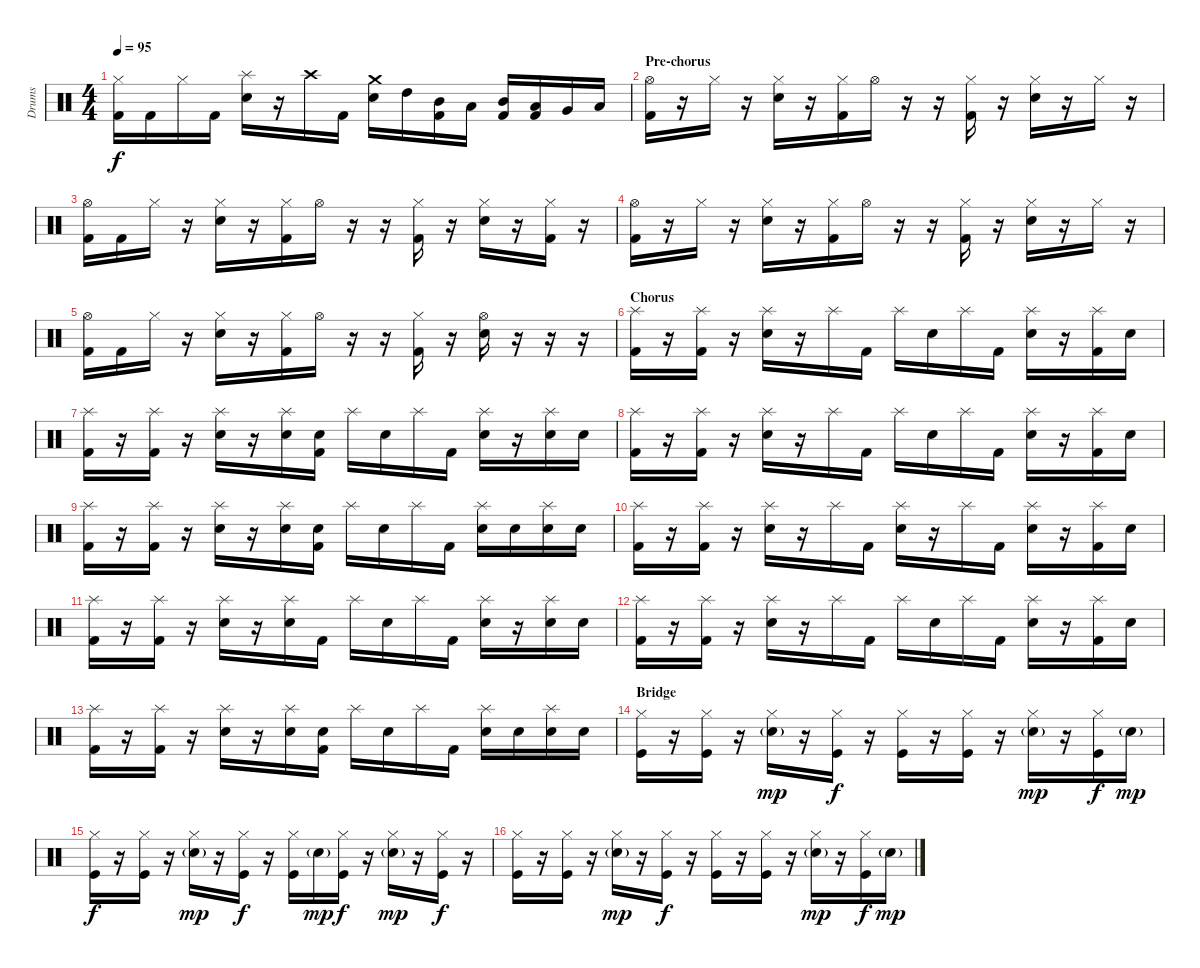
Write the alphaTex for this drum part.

\track ("Drums" "Drums") {instrument percussion}
\staff {score}
\articulation defaults
\ts (4 4)
\tempo 95
\clef neutral
\ks c
("Hi-Hat (closed)" "Kick (hit) 2").16{dy f} "Kick (hit) 2".16 "Hi-Hat (closed)".16 "Kick (hit) 2".16 ("Electric Snare (hit)" "Splash (hit)").16 r.16 "Crash high (hit)".16 "Kick (hit) 2".16 ("Crash medium (hit)" "Electric Snare (hit)").16 "High Tom (hit)".16 ("Mid Tom (hit)" "Kick (hit) 2").16 "Low Tom (hit)".16 ("Mid Tom (hit)" "Kick (hit) 2").16 ("Low Tom (hit)" "Kick (hit) 2").16 "Very Low Tom (hit)".16 "Low Floor Tom (hit)".16 |
\section ("" "Pre-chorus")
("Hi-Hat (open)" "Kick (hit) 2").16 r.16 "Hi-Hat (closed)".16 r.16 ("Hi-Hat (closed)" "Electric Snare (hit)").16 r.16 ("Hi-Hat (closed)" "Kick (hit) 2").16 "Hi-Hat (open)".16 r.16 r.16 ("Hi-Hat (closed)" "Kick (hit) 2").16 r.16 ("Hi-Hat (closed)" "Electric Snare (hit)").16 r.16 "Hi-Hat (closed)".16 r.16 |
("Hi-Hat (open)" "Kick (hit) 2").16 "Kick (hit) 2".16 "Hi-Hat (closed)".16 r.16 ("Hi-Hat (closed)" "Electric Snare (hit)").16 r.16 ("Hi-Hat (closed)" "Kick (hit) 2").16 "Hi-Hat (open)".16 r.16 r.16 ("Hi-Hat (closed)" "Kick (hit) 2").16 r.16 ("Hi-Hat (closed)" "Electric Snare (hit)").16 r.16 ("Hi-Hat (closed)" "Kick (hit) 2").16 r.16 |
("Hi-Hat (open)" "Kick (hit) 2").16 r.16 "Hi-Hat (closed)".16 r.16 ("Hi-Hat (closed)" "Electric Snare (hit)").16 r.16 ("Hi-Hat (closed)" "Kick (hit) 2").16 "Hi-Hat (open)".16 r.16 r.16 ("Hi-Hat (closed)" "Kick (hit) 2").16 r.16 ("Hi-Hat (closed)" "Electric Snare (hit)").16 r.16 "Hi-Hat (closed)".16 r.16 |
("Hi-Hat (open)" "Kick (hit) 2").16 "Kick (hit) 2".16 "Hi-Hat (closed)".16 r.16 ("Hi-Hat (closed)" "Electric Snare (hit)").16 r.16 ("Hi-Hat (closed)" "Kick (hit) 2").16 "Hi-Hat (open)".16 r.16 r.16 ("Hi-Hat (closed)" "Kick (hit) 2").16 r.16 ("Hi-Hat (open)" "Electric Snare (hit)").16 r.16 r.16 r.16 |
\section ("" "Chorus")
("Splash (hit)" "Kick (hit) 2").16 r.16 ("Splash (hit)" "Kick (hit) 2").16 r.16 ("Splash (hit)" "Electric Snare (hit)").16 r.16 "Splash (hit)".16 "Kick (hit) 2".16 "Splash (hit)".16 "Electric Snare (hit)".16 "Splash (hit)".16 "Kick (hit) 2".16 ("Splash (hit)" "Electric Snare (hit)").16 r.16 ("Splash (hit)" "Kick (hit) 2").16 "Electric Snare (hit)".16 |
("Splash (hit)" "Kick (hit) 2").16 r.16 ("Splash (hit)" "Kick (hit) 2").16 r.16 ("Splash (hit)" "Electric Snare (hit)").16 r.16 ("Splash (hit)" "Electric Snare (hit)").16 ("Kick (hit) 2" "Electric Snare (hit)").16 "Splash (hit)".16 "Electric Snare (hit)".16 "Splash (hit)".16 "Kick (hit) 2".16 ("Splash (hit)" "Electric Snare (hit)").16 r.16 ("Splash (hit)" "Electric Snare (hit)").16 "Electric Snare (hit)".16 |
("Splash (hit)" "Kick (hit) 2").16 r.16 ("Splash (hit)" "Kick (hit) 2").16 r.16 ("Splash (hit)" "Electric Snare (hit)").16 r.16 "Splash (hit)".16 "Kick (hit) 2".16 "Splash (hit)".16 "Electric Snare (hit)".16 "Splash (hit)".16 "Kick (hit) 2".16 ("Splash (hit)" "Electric Snare (hit)").16 r.16 ("Splash (hit)" "Kick (hit) 2").16 "Electric Snare (hit)".16 |
("Splash (hit)" "Kick (hit) 2").16 r.16 ("Splash (hit)" "Kick (hit) 2").16 r.16 ("Splash (hit)" "Electric Snare (hit)").16 r.16 ("Splash (hit)" "Electric Snare (hit)").16 ("Kick (hit) 2" "Electric Snare (hit)").16 "Splash (hit)".16 "Electric Snare (hit)".16 "Splash (hit)".16 "Kick (hit) 2".16 ("Splash (hit)" "Electric Snare (hit)").16 "Electric Snare (hit)".16 ("Splash (hit)" "Electric Snare (hit)").16 "Electric Snare (hit)".16 |
("Splash (hit)" "Kick (hit) 2").16 r.16 ("Splash (hit)" "Kick (hit) 2").16 r.16 ("Splash (hit)" "Electric Snare (hit)").16 r.16 "Splash (hit)".16 "Kick (hit) 2".16 ("Splash (hit)" "Electric Snare (hit)").16 r.16 "Splash (hit)".16 "Kick (hit) 2".16 ("Splash (hit)" "Electric Snare (hit)").16 r.16 ("Splash (hit)" "Kick (hit) 2").16 "Electric Snare (hit)".16 |
("Splash (hit)" "Kick (hit) 2").16 r.16 ("Splash (hit)" "Kick (hit) 2").16 r.16 ("Splash (hit)" "Electric Snare (hit)").16 r.16 ("Splash (hit)" "Electric Snare (hit)").16 "Kick (hit) 2".16 "Splash (hit)".16 "Electric Snare (hit)".16 "Splash (hit)".16 "Kick (hit) 2".16 ("Splash (hit)" "Electric Snare (hit)").16 r.16 ("Splash (hit)" "Electric Snare (hit)").16 "Electric Snare (hit)".16 |
("Splash (hit)" "Kick (hit) 2").16 r.16 ("Splash (hit)" "Kick (hit) 2").16 r.16 ("Splash (hit)" "Electric Snare (hit)").16 r.16 "Splash (hit)".16 "Kick (hit) 2".16 "Splash (hit)".16 "Electric Snare (hit)".16 "Splash (hit)".16 "Kick (hit) 2".16 ("Splash (hit)" "Electric Snare (hit)").16 r.16 ("Splash (hit)" "Kick (hit) 2").16 "Electric Snare (hit)".16 |
("Splash (hit)" "Kick (hit) 2").16 r.16 ("Splash (hit)" "Kick (hit) 2").16 r.16 ("Splash (hit)" "Electric Snare (hit)").16 r.16 ("Splash (hit)" "Electric Snare (hit)").16 ("Kick (hit) 2" "Electric Snare (hit)").16 "Splash (hit)".16 "Electric Snare (hit)".16 "Splash (hit)".16 "Kick (hit) 2".16 ("Splash (hit)" "Electric Snare (hit)").16 "Electric Snare (hit)".16 ("Splash (hit)" "Electric Snare (hit)").16 "Electric Snare (hit)".16 |
\section ("" "Bridge")
("Hi-Hat (closed)" "Kick (hit)").16 r.16 ("Hi-Hat (closed)" "Kick (hit)").16 r.16 ("Hi-Hat (closed)" "Electric Snare (hit)"{g}).16{dy mp} r.16 ("Hi-Hat (closed)" "Kick (hit)").16{dy f} r.16 ("Hi-Hat (closed)" "Kick (hit)").16 r.16 ("Hi-Hat (closed)" "Kick (hit)").16 r.16 ("Hi-Hat (closed)" "Electric Snare (hit)"{g}).16{dy mp} r.16 ("Hi-Hat (closed)" "Kick (hit)").16{dy f} "Electric Snare (hit)"{g}.16{dy mp} |
("Hi-Hat (closed)" "Kick (hit)").16{dy f} r.16 ("Hi-Hat (closed)" "Kick (hit)").16 r.16 ("Hi-Hat (closed)" "Electric Snare (hit)"{g}).16{dy mp} r.16 ("Hi-Hat (closed)" "Kick (hit)").16{dy f} r.16 ("Hi-Hat (closed)" "Kick (hit)").16 "Electric Snare (hit)"{g}.16{dy mp} ("Hi-Hat (closed)" "Kick (hit)").16{dy f} r.16 ("Hi-Hat (closed)" "Electric Snare (hit)"{g}).16{dy mp} r.16 ("Hi-Hat (closed)" "Kick (hit)").16{dy f} r.16 |
("Hi-Hat (closed)" "Kick (hit)").16 r.16 ("Hi-Hat (closed)" "Kick (hit)").16 r.16 ("Hi-Hat (closed)" "Electric Snare (hit)"{g}).16{dy mp} r.16 ("Hi-Hat (closed)" "Kick (hit)").16{dy f} r.16 ("Hi-Hat (closed)" "Kick (hit)").16 r.16 ("Hi-Hat (closed)" "Kick (hit)").16 r.16 ("Hi-Hat (closed)" "Electric Snare (hit)"{g}).16{dy mp} r.16 ("Hi-Hat (closed)" "Kick (hit)").16{dy f} "Electric Snare (hit)"{g}.16{dy mp}
